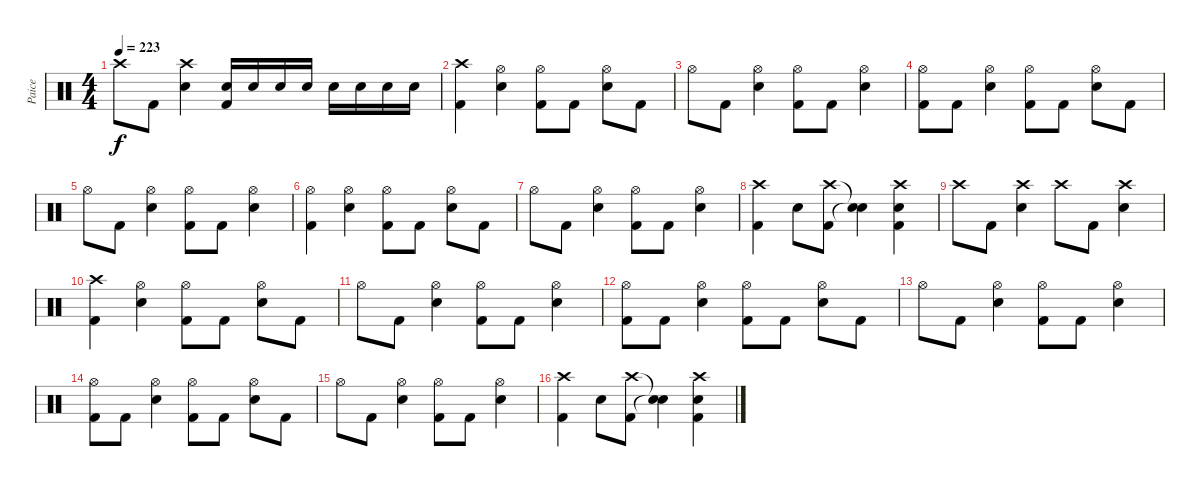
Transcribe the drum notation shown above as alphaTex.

\track ("Paice" "Paice") {instrument percussion}
\staff {score}
\articulation defaults
\ts (4 4)
\tempo 223
\clef neutral
\ks c "Crash high (hit)".8{dy f} "Kick (hit) 2".8
("Crash high (hit)" "Electric Snare (hit)").4 ("Electric Snare (hit)" "Kick (hit) 2").16 "Electric Snare (hit)".16 "Electric Snare (hit)".16 "Electric Snare (hit)".16 "Electric Snare (hit)".16 "Electric Snare (hit)".16 "Electric Snare (hit)".16 "Electric Snare (hit)".16 |
("Crash high (hit)" "Kick (hit) 2").4 ("Hi-Hat (open)" "Electric Snare (hit)").4 ("Hi-Hat (open)" "Kick (hit) 2").8 "Kick (hit) 2".8 ("Hi-Hat (open)" "Electric Snare (hit)").8 "Kick (hit) 2".8 |
"Hi-Hat (open)".8 "Kick (hit) 2".8 ("Hi-Hat (open)" "Electric Snare (hit)").4 ("Hi-Hat (open)" "Kick (hit) 2").8 "Kick (hit) 2".8 ("Hi-Hat (open)" "Electric Snare (hit)").4 |
("Hi-Hat (open)" "Kick (hit) 2").8 "Kick (hit) 2".8 ("Hi-Hat (open)" "Electric Snare (hit)").4 ("Hi-Hat (open)" "Kick (hit) 2").8 "Kick (hit) 2".8 ("Hi-Hat (open)" "Electric Snare (hit)").8 "Kick (hit) 2".8 |
"Hi-Hat (open)".8 "Kick (hit) 2".8 ("Hi-Hat (open)" "Electric Snare (hit)").4 ("Hi-Hat (open)" "Kick (hit) 2").8 "Kick (hit) 2".8 ("Hi-Hat (open)" "Electric Snare (hit)").4 |
("Hi-Hat (open)" "Kick (hit) 2").4 ("Hi-Hat (open)" "Electric Snare (hit)").4 ("Hi-Hat (open)" "Kick (hit) 2").8 "Kick (hit) 2".8 ("Hi-Hat (open)" "Electric Snare (hit)").8 "Kick (hit) 2".8 |
"Hi-Hat (open)".8 "Kick (hit) 2".8 ("Hi-Hat (open)" "Electric Snare (hit)").4 ("Hi-Hat (open)" "Kick (hit) 2").8 "Kick (hit) 2".8 ("Hi-Hat (open)" "Electric Snare (hit)").4 |
("Crash high (hit)" "Kick (hit) 2").4 "Electric Snare (hit)".8 ("Crash high (hit)" "Kick (hit) 2").8 ("Snare (hit)"{t} "Snare (hit)"{t}).4 ("Crash high (hit)" "Electric Snare (hit)" "Kick (hit) 2").4 |
"Crash high (hit)".8 "Kick (hit) 2".8 ("Crash high (hit)" "Electric Snare (hit)").4 "Crash high (hit)".8 "Kick (hit) 2".8 ("Crash high (hit)" "Electric Snare (hit)").4 |
("Crash high (hit)" "Kick (hit) 2").4 ("Hi-Hat (open)" "Electric Snare (hit)").4 ("Hi-Hat (open)" "Kick (hit) 2").8 "Kick (hit) 2".8 ("Hi-Hat (open)" "Electric Snare (hit)").8 "Kick (hit) 2".8 |
"Hi-Hat (open)".8 "Kick (hit) 2".8 ("Hi-Hat (open)" "Electric Snare (hit)").4 ("Hi-Hat (open)" "Kick (hit) 2").8 "Kick (hit) 2".8 ("Hi-Hat (open)" "Electric Snare (hit)").4 |
("Hi-Hat (open)" "Kick (hit) 2").8 "Kick (hit) 2".8 ("Hi-Hat (open)" "Electric Snare (hit)").4 ("Hi-Hat (open)" "Kick (hit) 2").8 "Kick (hit) 2".8 ("Hi-Hat (open)" "Electric Snare (hit)").8 "Kick (hit) 2".8 |
"Hi-Hat (open)".8 "Kick (hit) 2".8 ("Hi-Hat (open)" "Electric Snare (hit)").4 ("Hi-Hat (open)" "Kick (hit) 2").8 "Kick (hit) 2".8 ("Hi-Hat (open)" "Electric Snare (hit)").4 |
("Hi-Hat (open)" "Kick (hit) 2").8 "Kick (hit) 2".8 ("Hi-Hat (open)" "Electric Snare (hit)").4 ("Hi-Hat (open)" "Kick (hit) 2").8 "Kick (hit) 2".8 ("Hi-Hat (open)" "Electric Snare (hit)").8 "Kick (hit) 2".8 |
"Hi-Hat (open)".8 "Kick (hit) 2".8 ("Hi-Hat (open)" "Electric Snare (hit)").4 ("Hi-Hat (open)" "Kick (hit) 2").8 "Kick (hit) 2".8 ("Hi-Hat (open)" "Electric Snare (hit)").4 |
("Crash high (hit)" "Kick (hit) 2").4 "Electric Snare (hit)".8 ("Crash high (hit)" "Kick (hit) 2").8 ("Snare (hit)"{t} "Snare (hit)"{t}).4 ("Crash high (hit)" "Electric Snare (hit)" "Kick (hit) 2").4
